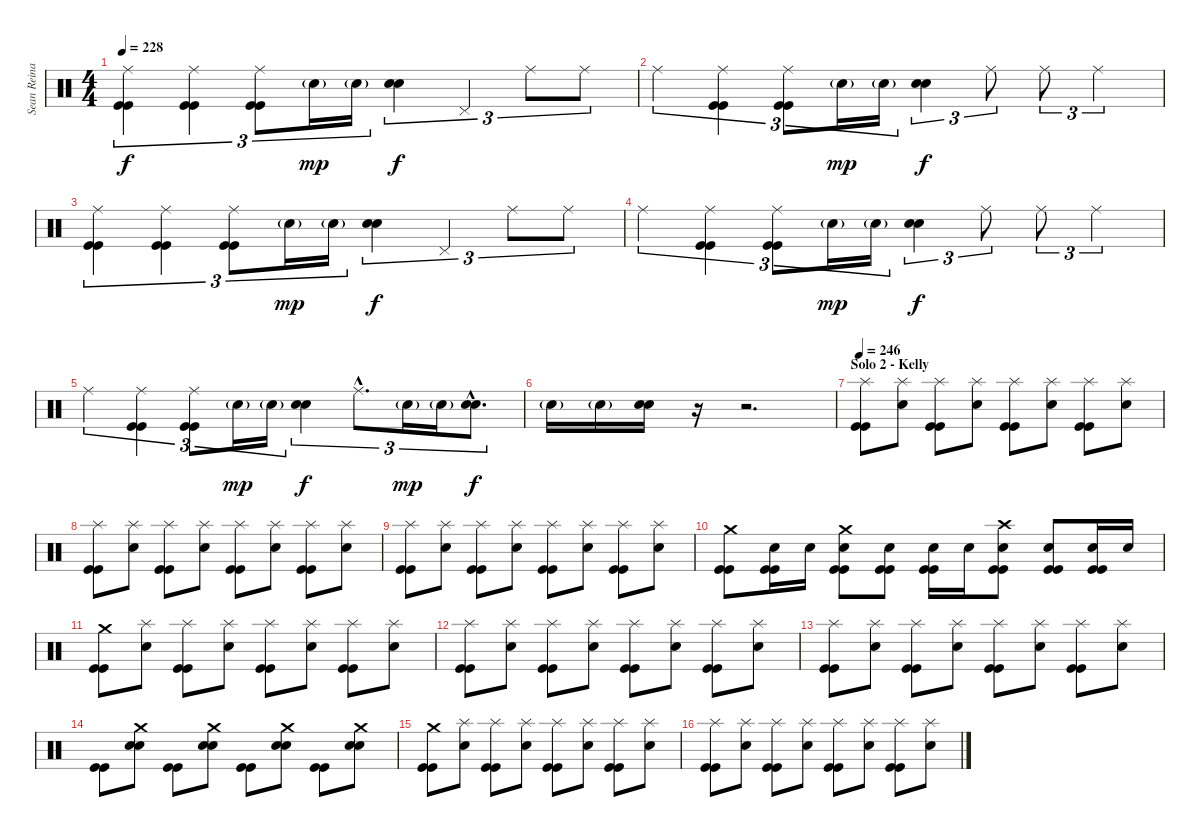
\track ("Sean Reinart" "Sean Reina") {instrument percussion}
\staff {score}
\articulation defaults
\ts (4 4)
\tempo 228
\clef neutral
\ks c
("Ride (middle)" "Kick (hit)" "Kick (hit)").4{tu (3 2) dy f} ("Ride (middle)" "Kick (hit)" "Kick (hit)").4{tu (3 2)} ("Ride (middle)" "Kick (hit)" "Kick (hit)").8{tu (3 2)} "Snare (hit) 2"{g}.16{tu (3 2) dy mp} "Snare (hit) 2"{g}.16{tu (3 2)} ("Snare (hit) 2" "Electric Snare (hit)").4{tu (3 2) dy f} "Pedal Hi-Hat (hit)".4{tu (3 2)} "Ride (middle)".8{tu (3 2)} "Ride (middle)".8{tu (3 2)} |
"Ride (middle)".4{tu (3 2)} ("Ride (middle)" "Kick (hit)" "Kick (hit)").4{tu (3 2)} ("Ride (middle)" "Kick (hit)" "Kick (hit)").8{tu (3 2)} "Snare (hit) 2"{g}.16{tu (3 2) dy mp} "Snare (hit) 2"{g}.16{tu (3 2)} ("Snare (hit) 2" "Electric Snare (hit)").4{tu (3 2) dy f} "Ride (middle)".8{tu (3 2)} "Ride (middle)".8{tu (3 2)} "Ride (middle)".4{tu (3 2)} |
("Ride (middle)" "Kick (hit)" "Kick (hit)").4{tu (3 2)} ("Ride (middle)" "Kick (hit)" "Kick (hit)").4{tu (3 2)} ("Ride (middle)" "Kick (hit)" "Kick (hit)").8{tu (3 2)} "Snare (hit) 2"{g}.16{tu (3 2) dy mp} "Snare (hit) 2"{g}.16{tu (3 2)} ("Snare (hit) 2" "Electric Snare (hit)").4{tu (3 2) dy f} "Pedal Hi-Hat (hit)".4{tu (3 2)} "Ride (middle)".8{tu (3 2)} "Ride (middle)".8{tu (3 2)} |
"Ride (middle)".4{tu (3 2)} ("Ride (middle)" "Kick (hit)" "Kick (hit)").4{tu (3 2)} ("Ride (middle)" "Kick (hit)" "Kick (hit)").8{tu (3 2)} "Snare (hit) 2"{g}.16{tu (3 2) dy mp} "Snare (hit) 2"{g}.16{tu (3 2)} ("Snare (hit) 2" "Electric Snare (hit)").4{tu (3 2) dy f} "Ride (middle)".8{tu (3 2)} "Ride (middle)".8{tu (3 2)} "Ride (middle)".4{tu (3 2)} |
"Ride (middle)".4{tu (3 2)} ("Ride (middle)" "Kick (hit)" "Kick (hit)").4{tu (3 2)} ("Ride (middle)" "Kick (hit)" "Kick (hit)").8{tu (3 2)} "Snare (hit) 2"{g}.16{tu (3 2) dy mp} "Snare (hit) 2"{g}.16{tu (3 2)} ("Snare (hit) 2" "Electric Snare (hit)").4{tu (3 2) dy f} "Ride (middle)"{hac}.8{d tu (3 2)} "Snare (hit) 2"{g}.16{tu (3 2) dy mp} "Snare (hit) 2"{g}.16{tu (3 2)} ("Snare (hit) 2"{hac} "Electric Snare (hit)"{hac}).8{d tu (3 2) dy f} |
"Snare (hit) 2"{g}.16 "Snare (hit) 2"{g}.16 ("Snare (hit) 2" "Electric Snare (hit)").16 r.16 r.2{d} |
\section ("" "Solo 2 - Kelly")
\tempo 246
("Splash (hit)" "Kick (hit)" "Kick (hit)").8 ("Splash (hit)" "Snare (hit) 2").8 ("Splash (hit)" "Kick (hit)" "Kick (hit)").8 ("Splash (hit)" "Snare (hit) 2").8 ("Splash (hit)" "Kick (hit)" "Kick (hit)").8 ("Splash (hit)" "Snare (hit) 2").8 ("Splash (hit)" "Kick (hit)" "Kick (hit)").8 ("Splash (hit)" "Snare (hit) 2").8 |
("Splash (hit)" "Kick (hit)" "Kick (hit)").8 ("Splash (hit)" "Snare (hit) 2").8 ("Splash (hit)" "Kick (hit)" "Kick (hit)").8 ("Splash (hit)" "Snare (hit) 2").8 ("Splash (hit)" "Kick (hit)" "Kick (hit)").8 ("Splash (hit)" "Snare (hit) 2").8 ("Splash (hit)" "Kick (hit)" "Kick (hit)").8 ("Splash (hit)" "Snare (hit) 2").8 |
("Splash (hit)" "Kick (hit)" "Kick (hit)").8 ("Splash (hit)" "Snare (hit) 2").8 ("Splash (hit)" "Kick (hit)" "Kick (hit)").8 ("Splash (hit)" "Snare (hit) 2").8 ("Splash (hit)" "Kick (hit)" "Kick (hit)").8 ("Splash (hit)" "Snare (hit) 2").8 ("Splash (hit)" "Kick (hit)" "Kick (hit)").8 ("Splash (hit)" "Snare (hit) 2").8 |
("Crash medium (hit)" "Kick (hit)" "Kick (hit)").8 ("Snare (hit) 2" "Kick (hit)" "Kick (hit)").16 "Snare (hit) 2".16 ("Crash medium (hit)" "Snare (hit) 2" "Kick (hit)" "Kick (hit)").8 ("Snare (hit) 2" "Kick (hit)" "Kick (hit)").8 ("Snare (hit) 2" "Kick (hit)" "Kick (hit)").16 "Snare (hit) 2".16 ("Crash high (hit)" "Snare (hit) 2" "Kick (hit)" "Kick (hit)").8 ("Snare (hit) 2" "Kick (hit)" "Kick (hit)").8 ("Snare (hit) 2" "Kick (hit)" "Kick (hit)").16 "Snare (hit) 2".16 |
("Crash medium (hit)" "Kick (hit)" "Kick (hit)").8 ("Splash (hit)" "Snare (hit) 2").8 ("Splash (hit)" "Kick (hit)" "Kick (hit)").8 ("Splash (hit)" "Snare (hit) 2").8 ("Splash (hit)" "Kick (hit)" "Kick (hit)").8 ("Splash (hit)" "Snare (hit) 2").8 ("Splash (hit)" "Kick (hit)" "Kick (hit)").8 ("Splash (hit)" "Snare (hit) 2").8 |
("Splash (hit)" "Kick (hit)" "Kick (hit)").8 ("Splash (hit)" "Snare (hit) 2").8 ("Splash (hit)" "Kick (hit)" "Kick (hit)").8 ("Splash (hit)" "Snare (hit) 2").8 ("Splash (hit)" "Kick (hit)" "Kick (hit)").8 ("Splash (hit)" "Snare (hit) 2").8 ("Splash (hit)" "Kick (hit)" "Kick (hit)").8 ("Splash (hit)" "Snare (hit) 2").8 |
("Splash (hit)" "Kick (hit)" "Kick (hit)").8 ("Splash (hit)" "Snare (hit) 2").8 ("Splash (hit)" "Kick (hit)" "Kick (hit)").8 ("Splash (hit)" "Snare (hit) 2").8 ("Splash (hit)" "Kick (hit)" "Kick (hit)").8 ("Splash (hit)" "Snare (hit) 2").8 ("Splash (hit)" "Kick (hit)" "Kick (hit)").8 ("Splash (hit)" "Snare (hit) 2").8 |
("Kick (hit)" "Kick (hit)").8 ("Crash medium (hit)" "Snare (hit) 2" "Electric Snare (hit)").8 ("Kick (hit)" "Kick (hit)").8 ("Crash medium (hit)" "Snare (hit) 2" "Electric Snare (hit)").8 ("Kick (hit)" "Kick (hit)").8 ("Crash medium (hit)" "Snare (hit) 2" "Electric Snare (hit)").8 ("Kick (hit)" "Kick (hit)").8 ("Crash medium (hit)" "Snare (hit) 2" "Electric Snare (hit)").8 |
("Crash medium (hit)" "Kick (hit)" "Kick (hit)").8 ("Splash (hit)" "Snare (hit) 2").8 ("Splash (hit)" "Kick (hit)" "Kick (hit)").8 ("Splash (hit)" "Snare (hit) 2").8 ("Splash (hit)" "Kick (hit)" "Kick (hit)").8 ("Splash (hit)" "Snare (hit) 2").8 ("Splash (hit)" "Kick (hit)" "Kick (hit)").8 ("Splash (hit)" "Snare (hit) 2").8 |
("Splash (hit)" "Kick (hit)" "Kick (hit)").8 ("Splash (hit)" "Snare (hit) 2").8 ("Splash (hit)" "Kick (hit)" "Kick (hit)").8 ("Splash (hit)" "Snare (hit) 2").8 ("Splash (hit)" "Kick (hit)" "Kick (hit)").8 ("Splash (hit)" "Snare (hit) 2").8 ("Splash (hit)" "Kick (hit)" "Kick (hit)").8 ("Splash (hit)" "Snare (hit) 2").8
